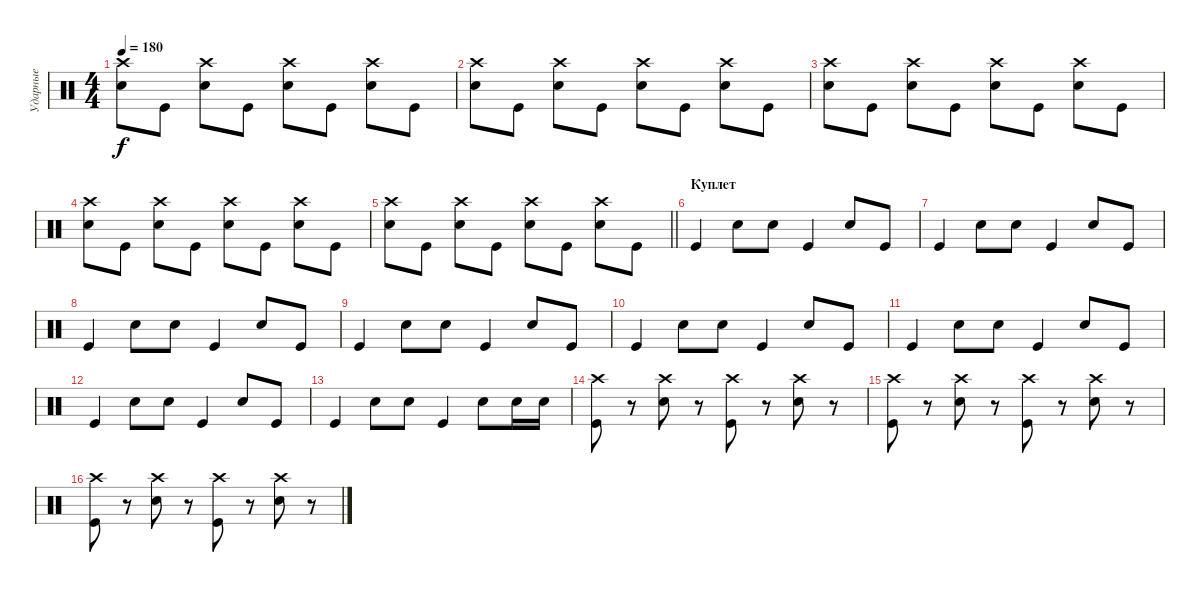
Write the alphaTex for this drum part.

\track ("Ударные" "Ударные") {instrument percussion}
\staff {score}
\articulation defaults
\ts (4 4)
\tempo 180
\clef neutral
\ks c
("Electric Snare (hit)" "Crash high (hit)").8{dy f} "Kick (hit)".8 ("Electric Snare (hit)" "Crash high (hit)").8 "Kick (hit)".8 ("Electric Snare (hit)" "Crash high (hit)").8 "Kick (hit)".8 ("Electric Snare (hit)" "Crash high (hit)").8 "Kick (hit)".8 |
("Electric Snare (hit)" "Crash high (hit)").8 "Kick (hit)".8 ("Electric Snare (hit)" "Crash high (hit)").8 "Kick (hit)".8 ("Electric Snare (hit)" "Crash high (hit)").8 "Kick (hit)".8 ("Electric Snare (hit)" "Crash high (hit)").8 "Kick (hit)".8 |
("Electric Snare (hit)" "Crash high (hit)").8 "Kick (hit)".8 ("Electric Snare (hit)" "Crash high (hit)").8 "Kick (hit)".8 ("Electric Snare (hit)" "Crash high (hit)").8 "Kick (hit)".8 ("Electric Snare (hit)" "Crash high (hit)").8 "Kick (hit)".8 |
("Electric Snare (hit)" "Crash high (hit)").8 "Kick (hit)".8 ("Electric Snare (hit)" "Crash high (hit)").8 "Kick (hit)".8 ("Electric Snare (hit)" "Crash high (hit)").8 "Kick (hit)".8 ("Electric Snare (hit)" "Crash high (hit)").8 "Kick (hit)".8 |
\barLineRight lightlight
("Electric Snare (hit)" "Crash high (hit)").8 "Kick (hit)".8 ("Electric Snare (hit)" "Crash high (hit)").8 "Kick (hit)".8 ("Electric Snare (hit)" "Crash high (hit)").8 "Kick (hit)".8 ("Electric Snare (hit)" "Crash high (hit)").8 "Kick (hit)".8 |
\section ("" "Куплет")
"Kick (hit)".4 "Electric Snare (hit)".8 "Electric Snare (hit)".8 "Kick (hit)".4 "Electric Snare (hit)".8 "Kick (hit)".8 |
"Kick (hit)".4 "Electric Snare (hit)".8 "Electric Snare (hit)".8 "Kick (hit)".4 "Electric Snare (hit)".8 "Kick (hit)".8 |
"Kick (hit)".4 "Electric Snare (hit)".8 "Electric Snare (hit)".8 "Kick (hit)".4 "Electric Snare (hit)".8 "Kick (hit)".8 |
"Kick (hit)".4 "Electric Snare (hit)".8 "Electric Snare (hit)".8 "Kick (hit)".4 "Electric Snare (hit)".8 "Kick (hit)".8 |
"Kick (hit)".4 "Electric Snare (hit)".8 "Electric Snare (hit)".8 "Kick (hit)".4 "Electric Snare (hit)".8 "Kick (hit)".8 |
"Kick (hit)".4 "Electric Snare (hit)".8 "Electric Snare (hit)".8 "Kick (hit)".4 "Electric Snare (hit)".8 "Kick (hit)".8 |
"Kick (hit)".4 "Electric Snare (hit)".8 "Electric Snare (hit)".8 "Kick (hit)".4 "Electric Snare (hit)".8 "Kick (hit)".8 |
"Kick (hit)".4 "Electric Snare (hit)".8 "Electric Snare (hit)".8 "Kick (hit)".4 "Electric Snare (hit)".8 "Electric Snare (hit)".16 "Electric Snare (hit)".16 |
("Kick (hit)" "Crash high (hit)").8 r.8 ("Electric Snare (hit)" "Crash high (hit)").8 r.8 ("Kick (hit)" "Crash high (hit)").8 r.8 ("Electric Snare (hit)" "Crash high (hit)").8 r.8 |
("Kick (hit)" "Crash high (hit)").8 r.8 ("Electric Snare (hit)" "Crash high (hit)").8 r.8 ("Kick (hit)" "Crash high (hit)").8 r.8 ("Electric Snare (hit)" "Crash high (hit)").8 r.8 |
("Kick (hit)" "Crash high (hit)").8 r.8 ("Electric Snare (hit)" "Crash high (hit)").8 r.8 ("Kick (hit)" "Crash high (hit)").8 r.8 ("Electric Snare (hit)" "Crash high (hit)").8 r.8
